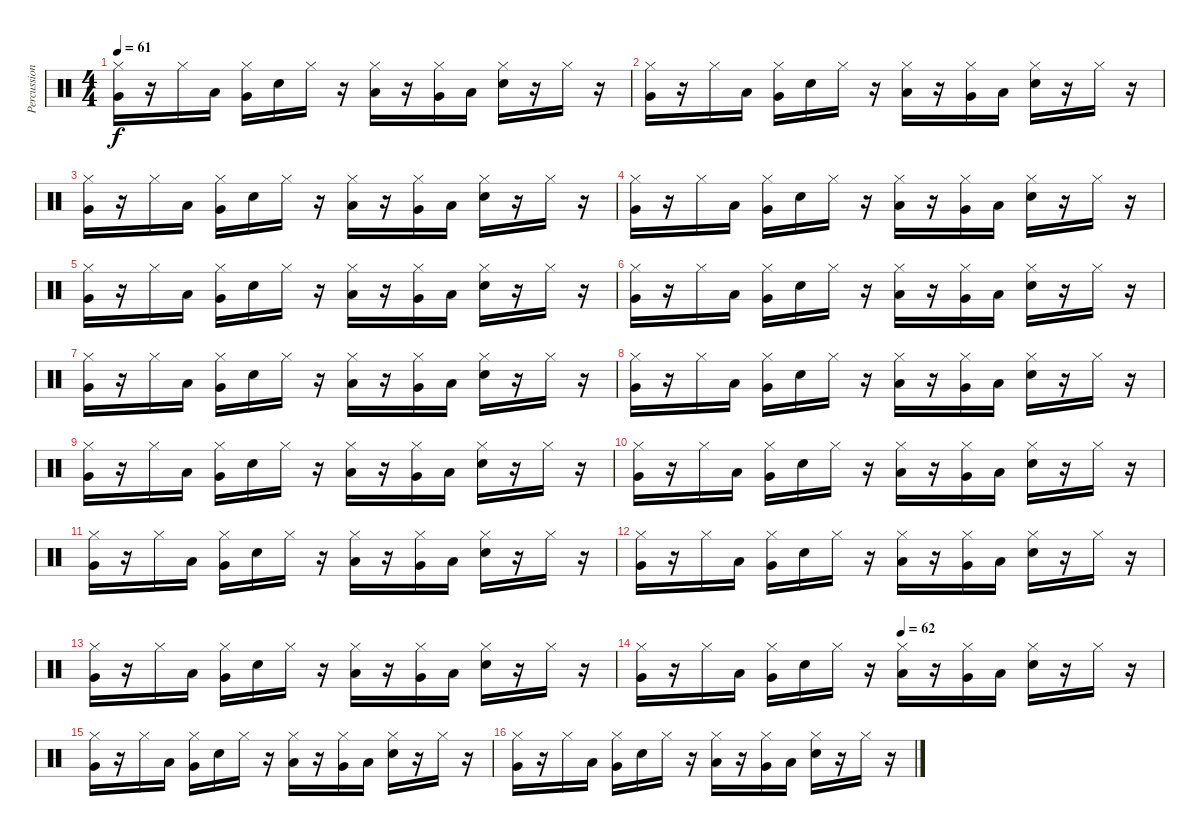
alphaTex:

\track ("Percussion" "Percussion") {instrument percussion}
\staff {score}
\articulation defaults
\ts (4 4)
\tempo 61
\clef neutral
\ks c
("Hi-Hat (closed)" "Very Low Tom (hit)").16{dy f} r.16 "Hi-Hat (closed)".16 "Low Floor Tom (hit)".16 ("Hi-Hat (closed)" "Very Low Tom (hit)").16 "Electric Snare (hit)".16 "Hi-Hat (closed)".16 r.16 ("Hi-Hat (closed)" "Low Floor Tom (hit)").16 r.16 ("Hi-Hat (closed)" "Very Low Tom (hit)").16 "Low Floor Tom (hit)".16 ("Hi-Hat (closed)" "Electric Snare (hit)").16 r.16 "Hi-Hat (closed)".16 r.16 |
("Hi-Hat (closed)" "Very Low Tom (hit)").16 r.16 "Hi-Hat (closed)".16 "Low Floor Tom (hit)".16 ("Hi-Hat (closed)" "Very Low Tom (hit)").16 "Electric Snare (hit)".16 "Hi-Hat (closed)".16 r.16 ("Hi-Hat (closed)" "Low Floor Tom (hit)").16 r.16 ("Hi-Hat (closed)" "Very Low Tom (hit)").16 "Low Floor Tom (hit)".16 ("Hi-Hat (closed)" "Electric Snare (hit)").16 r.16 "Hi-Hat (closed)".16 r.16 |
("Hi-Hat (closed)" "Very Low Tom (hit)").16 r.16 "Hi-Hat (closed)".16 "Low Floor Tom (hit)".16 ("Hi-Hat (closed)" "Very Low Tom (hit)").16 "Electric Snare (hit)".16 "Hi-Hat (closed)".16 r.16 ("Hi-Hat (closed)" "Low Floor Tom (hit)").16 r.16 ("Hi-Hat (closed)" "Very Low Tom (hit)").16 "Low Floor Tom (hit)".16 ("Hi-Hat (closed)" "Electric Snare (hit)").16 r.16 "Hi-Hat (closed)".16 r.16 |
("Hi-Hat (closed)" "Very Low Tom (hit)").16 r.16 "Hi-Hat (closed)".16 "Low Floor Tom (hit)".16 ("Hi-Hat (closed)" "Very Low Tom (hit)").16 "Electric Snare (hit)".16 "Hi-Hat (closed)".16 r.16 ("Hi-Hat (closed)" "Low Floor Tom (hit)").16 r.16 ("Hi-Hat (closed)" "Very Low Tom (hit)").16 "Low Floor Tom (hit)".16 ("Hi-Hat (closed)" "Electric Snare (hit)").16 r.16 "Hi-Hat (closed)".16 r.16 |
("Hi-Hat (closed)" "Very Low Tom (hit)").16 r.16 "Hi-Hat (closed)".16 "Low Floor Tom (hit)".16 ("Hi-Hat (closed)" "Very Low Tom (hit)").16 "Electric Snare (hit)".16 "Hi-Hat (closed)".16 r.16 ("Hi-Hat (closed)" "Low Floor Tom (hit)").16 r.16 ("Hi-Hat (closed)" "Very Low Tom (hit)").16 "Low Floor Tom (hit)".16 ("Hi-Hat (closed)" "Electric Snare (hit)").16 r.16 "Hi-Hat (closed)".16 r.16 |
("Hi-Hat (closed)" "Very Low Tom (hit)").16 r.16 "Hi-Hat (closed)".16 "Low Floor Tom (hit)".16 ("Hi-Hat (closed)" "Very Low Tom (hit)").16 "Electric Snare (hit)".16 "Hi-Hat (closed)".16 r.16 ("Hi-Hat (closed)" "Low Floor Tom (hit)").16 r.16 ("Hi-Hat (closed)" "Very Low Tom (hit)").16 "Low Floor Tom (hit)".16 ("Hi-Hat (closed)" "Electric Snare (hit)").16 r.16 "Hi-Hat (closed)".16 r.16 |
("Hi-Hat (closed)" "Very Low Tom (hit)").16 r.16 "Hi-Hat (closed)".16 "Low Floor Tom (hit)".16 ("Hi-Hat (closed)" "Very Low Tom (hit)").16 "Electric Snare (hit)".16 "Hi-Hat (closed)".16 r.16 ("Hi-Hat (closed)" "Low Floor Tom (hit)").16 r.16 ("Hi-Hat (closed)" "Very Low Tom (hit)").16 "Low Floor Tom (hit)".16 ("Hi-Hat (closed)" "Electric Snare (hit)").16 r.16 "Hi-Hat (closed)".16 r.16 |
("Hi-Hat (closed)" "Very Low Tom (hit)").16 r.16 "Hi-Hat (closed)".16 "Low Floor Tom (hit)".16 ("Hi-Hat (closed)" "Very Low Tom (hit)").16 "Electric Snare (hit)".16 "Hi-Hat (closed)".16 r.16 ("Hi-Hat (closed)" "Low Floor Tom (hit)").16 r.16 ("Hi-Hat (closed)" "Very Low Tom (hit)").16 "Low Floor Tom (hit)".16 ("Hi-Hat (closed)" "Electric Snare (hit)").16 r.16 "Hi-Hat (closed)".16 r.16 |
("Hi-Hat (closed)" "Very Low Tom (hit)").16 r.16 "Hi-Hat (closed)".16 "Low Floor Tom (hit)".16 ("Hi-Hat (closed)" "Very Low Tom (hit)").16 "Electric Snare (hit)".16 "Hi-Hat (closed)".16 r.16 ("Hi-Hat (closed)" "Low Floor Tom (hit)").16 r.16 ("Hi-Hat (closed)" "Very Low Tom (hit)").16 "Low Floor Tom (hit)".16 ("Hi-Hat (closed)" "Electric Snare (hit)").16 r.16 "Hi-Hat (closed)".16 r.16 |
("Hi-Hat (closed)" "Very Low Tom (hit)").16 r.16 "Hi-Hat (closed)".16 "Low Floor Tom (hit)".16 ("Hi-Hat (closed)" "Very Low Tom (hit)").16 "Electric Snare (hit)".16 "Hi-Hat (closed)".16 r.16 ("Hi-Hat (closed)" "Low Floor Tom (hit)").16 r.16 ("Hi-Hat (closed)" "Very Low Tom (hit)").16 "Low Floor Tom (hit)".16 ("Hi-Hat (closed)" "Electric Snare (hit)").16 r.16 "Hi-Hat (closed)".16 r.16 |
("Hi-Hat (closed)" "Very Low Tom (hit)").16 r.16 "Hi-Hat (closed)".16 "Low Floor Tom (hit)".16 ("Hi-Hat (closed)" "Very Low Tom (hit)").16 "Electric Snare (hit)".16 "Hi-Hat (closed)".16 r.16 ("Hi-Hat (closed)" "Low Floor Tom (hit)").16 r.16 ("Hi-Hat (closed)" "Very Low Tom (hit)").16 "Low Floor Tom (hit)".16 ("Hi-Hat (closed)" "Electric Snare (hit)").16 r.16 "Hi-Hat (closed)".16 r.16 |
("Hi-Hat (closed)" "Very Low Tom (hit)").16 r.16 "Hi-Hat (closed)".16 "Low Floor Tom (hit)".16 ("Hi-Hat (closed)" "Very Low Tom (hit)").16 "Electric Snare (hit)".16 "Hi-Hat (closed)".16 r.16 ("Hi-Hat (closed)" "Low Floor Tom (hit)").16 r.16 ("Hi-Hat (closed)" "Very Low Tom (hit)").16 "Low Floor Tom (hit)".16 ("Hi-Hat (closed)" "Electric Snare (hit)").16 r.16 "Hi-Hat (closed)".16 r.16 |
("Hi-Hat (closed)" "Very Low Tom (hit)").16 r.16 "Hi-Hat (closed)".16 "Low Floor Tom (hit)".16 ("Hi-Hat (closed)" "Very Low Tom (hit)").16 "Electric Snare (hit)".16 "Hi-Hat (closed)".16 r.16 ("Hi-Hat (closed)" "Low Floor Tom (hit)").16 r.16 ("Hi-Hat (closed)" "Very Low Tom (hit)").16 "Low Floor Tom (hit)".16 ("Hi-Hat (closed)" "Electric Snare (hit)").16 r.16 "Hi-Hat (closed)".16 r.16 |
\tempo (62 0.5)
("Hi-Hat (closed)" "Very Low Tom (hit)").16 r.16 "Hi-Hat (closed)".16 "Low Floor Tom (hit)".16 ("Hi-Hat (closed)" "Very Low Tom (hit)").16 "Electric Snare (hit)".16 "Hi-Hat (closed)".16 r.16 ("Hi-Hat (closed)" "Low Floor Tom (hit)").16 r.16 ("Hi-Hat (closed)" "Very Low Tom (hit)").16 "Low Floor Tom (hit)".16 ("Hi-Hat (closed)" "Electric Snare (hit)").16 r.16 "Hi-Hat (closed)".16 r.16 |
("Hi-Hat (closed)" "Very Low Tom (hit)").16 r.16 "Hi-Hat (closed)".16 "Low Floor Tom (hit)".16 ("Hi-Hat (closed)" "Very Low Tom (hit)").16 "Electric Snare (hit)".16 "Hi-Hat (closed)".16 r.16 ("Hi-Hat (closed)" "Low Floor Tom (hit)").16 r.16 ("Hi-Hat (closed)" "Very Low Tom (hit)").16 "Low Floor Tom (hit)".16 ("Hi-Hat (closed)" "Electric Snare (hit)").16 r.16 "Hi-Hat (closed)".16 r.16 |
("Hi-Hat (closed)" "Very Low Tom (hit)").16 r.16 "Hi-Hat (closed)".16 "Low Floor Tom (hit)".16 ("Hi-Hat (closed)" "Very Low Tom (hit)").16 "Electric Snare (hit)".16 "Hi-Hat (closed)".16 r.16 ("Hi-Hat (closed)" "Low Floor Tom (hit)").16 r.16 ("Hi-Hat (closed)" "Very Low Tom (hit)").16 "Low Floor Tom (hit)".16 ("Hi-Hat (closed)" "Electric Snare (hit)").16 r.16 "Hi-Hat (closed)".16 r.16
